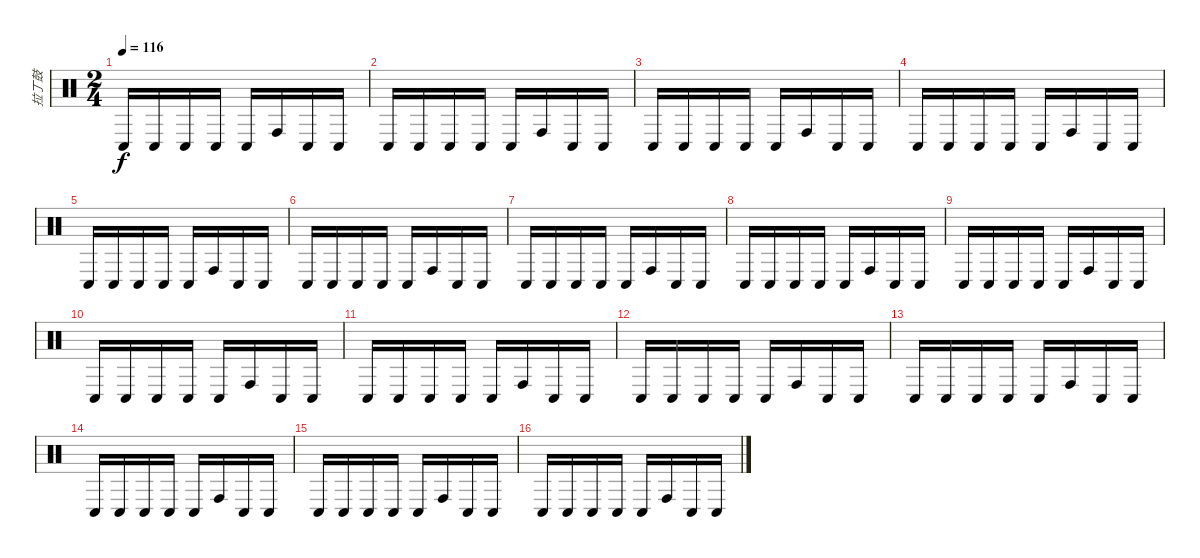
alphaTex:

\track ("拉丁鼓" "拉丁鼓") {instrument percussion}
\staff {score}
\articulation defaults
\ts (2 4)
\tempo 116
\clef neutral
\ks c "Conga low (hit)".16{dy f} "Conga low (hit)".16 "Conga low (hit)".16 "Conga low (hit)".16 "Conga low (hit)".16 "Conga high (hit)".16 "Conga low (hit)".16 "Conga low (hit)".16
|
"Conga low (hit)".16 "Conga low (hit)".16 "Conga low (hit)".16 "Conga low (hit)".16 "Conga low (hit)".16 "Conga high (hit)".16 "Conga low (hit)".16 "Conga low (hit)".16 |
"Conga low (hit)".16 "Conga low (hit)".16 "Conga low (hit)".16 "Conga low (hit)".16 "Conga low (hit)".16 "Conga high (hit)".16 "Conga low (hit)".16 "Conga low (hit)".16 |
"Conga low (hit)".16 "Conga low (hit)".16 "Conga low (hit)".16 "Conga low (hit)".16 "Conga low (hit)".16 "Conga high (hit)".16 "Conga low (hit)".16 "Conga low (hit)".16 |
"Conga low (hit)".16 "Conga low (hit)".16 "Conga low (hit)".16 "Conga low (hit)".16 "Conga low (hit)".16 "Conga high (hit)".16 "Conga low (hit)".16 "Conga low (hit)".16 |
"Conga low (hit)".16 "Conga low (hit)".16 "Conga low (hit)".16 "Conga low (hit)".16 "Conga low (hit)".16 "Conga high (hit)".16 "Conga low (hit)".16 "Conga low (hit)".16 |
"Conga low (hit)".16 "Conga low (hit)".16 "Conga low (hit)".16 "Conga low (hit)".16 "Conga low (hit)".16 "Conga high (hit)".16 "Conga low (hit)".16 "Conga low (hit)".16 |
"Conga low (hit)".16 "Conga low (hit)".16 "Conga low (hit)".16 "Conga low (hit)".16 "Conga low (hit)".16 "Conga high (hit)".16 "Conga low (hit)".16 "Conga low (hit)".16 |
"Conga low (hit)".16 "Conga low (hit)".16 "Conga low (hit)".16 "Conga low (hit)".16 "Conga low (hit)".16 "Conga high (hit)".16 "Conga low (hit)".16 "Conga low (hit)".16 |
"Conga low (hit)".16 "Conga low (hit)".16 "Conga low (hit)".16 "Conga low (hit)".16 "Conga low (hit)".16 "Conga high (hit)".16 "Conga low (hit)".16 "Conga low (hit)".16 |
"Conga low (hit)".16 "Conga low (hit)".16 "Conga low (hit)".16 "Conga low (hit)".16 "Conga low (hit)".16 "Conga high (hit)".16 "Conga low (hit)".16 "Conga low (hit)".16 |
"Conga low (hit)".16 "Conga low (hit)".16 "Conga low (hit)".16 "Conga low (hit)".16 "Conga low (hit)".16 "Conga high (hit)".16 "Conga low (hit)".16 "Conga low (hit)".16 |
"Conga low (hit)".16 "Conga low (hit)".16 "Conga low (hit)".16 "Conga low (hit)".16 "Conga low (hit)".16 "Conga high (hit)".16 "Conga low (hit)".16 "Conga low (hit)".16 |
"Conga low (hit)".16 "Conga low (hit)".16 "Conga low (hit)".16 "Conga low (hit)".16 "Conga low (hit)".16 "Conga high (hit)".16 "Conga low (hit)".16 "Conga low (hit)".16 |
"Conga low (hit)".16 "Conga low (hit)".16 "Conga low (hit)".16 "Conga low (hit)".16 "Conga low (hit)".16 "Conga high (hit)".16 "Conga low (hit)".16 "Conga low (hit)".16 |
"Conga low (hit)".16 "Conga low (hit)".16 "Conga low (hit)".16 "Conga low (hit)".16 "Conga low (hit)".16 "Conga high (hit)".16 "Conga low (hit)".16 "Conga low (hit)".16
